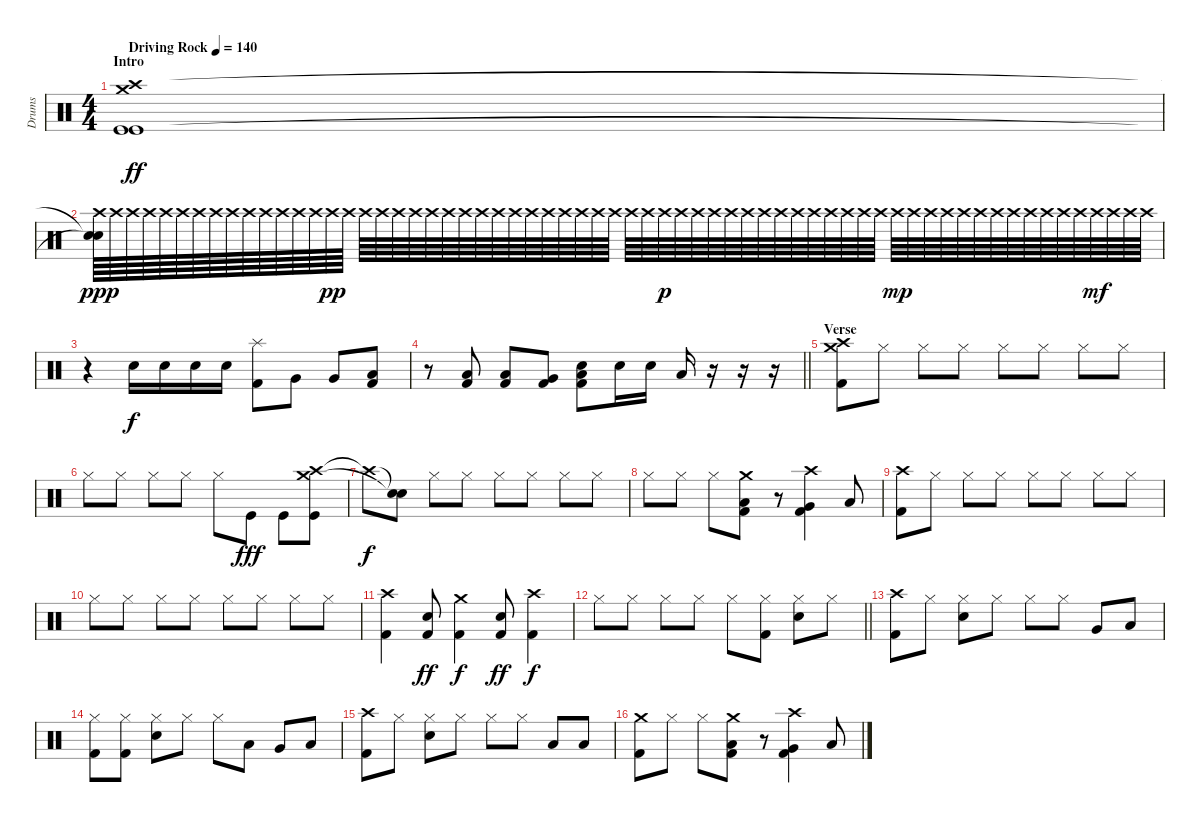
\track ("Drums" "Drums") {instrument percussion}
\staff {score}
\articulation defaults
\ts (4 4)
\section ("" "Intro")
\tempo (140 "Driving Rock")
\clef neutral
\ks c
("Crash medium (hit)" "Crash high (hit)" "Kick (hit)" "Kick (hit)").1{dy ff} |
("Crash high (hit)" "Snare (hit)"{t} "Snare (hit)"{t}).64{dy ppp} "Crash high (hit)".64 "Crash high (hit)".64 "Crash high (hit)".64 "Crash high (hit)".64 "Crash high (hit)".64 "Crash high (hit)".64 "Crash high (hit)".64 "Crash high (hit)".64 "Crash high (hit)".64 "Crash high (hit)".64 "Crash high (hit)".64 "Crash high (hit)".64 "Crash high (hit)".64 "Crash high (hit)".64{dy pp} "Crash high (hit)".64 "Crash high (hit)".64 "Crash high (hit)".64 "Crash high (hit)".64 "Crash high (hit)".64 "Crash high (hit)".64 "Crash high (hit)".64 "Crash high (hit)".64 "Crash high (hit)".64 "Crash high (hit)".64 "Crash high (hit)".64 "Crash high (hit)".64 "Crash high (hit)".64 "Crash high (hit)".64 "Crash high (hit)".64 "Crash high (hit)".64 "Crash high (hit)".64 "Crash high (hit)".64 "Crash high (hit)".64 "Crash high (hit)".64{dy p} "Crash high (hit)".64 "Crash high (hit)".64 "Crash high (hit)".64 "Crash high (hit)".64 "Crash high (hit)".64 "Crash high (hit)".64 "Crash high (hit)".64 "Crash high (hit)".64 "Crash high (hit)".64 "Crash high (hit)".64 "Crash high (hit)".64 "Crash high (hit)".64 "Crash high (hit)".64 "Crash high (hit)".64{dy mp} "Crash high (hit)".64 "Crash high (hit)".64 "Crash high (hit)".64 "Crash high (hit)".64 "Crash high (hit)".64 "Crash high (hit)".64 "Crash high (hit)".64 "Crash high (hit)".64 "Crash high (hit)".64 "Crash high (hit)".64 "Crash high (hit)".64 "Crash high (hit)".64{dy mf} "Crash high (hit)".64 "Crash high (hit)".64 "Crash high (hit)".64 |
r.4 "Snare (hit) 2".16{dy f} "Snare (hit) 2".16 "Snare (hit) 2".16 "Snare (hit) 2".16 ("Splash (hit)" "Kick (hit) 2").8 "Very Low Tom (hit)".8 "Very Low Tom (hit)".8 ("Low Tom (hit)" "Kick (hit) 2").8 |
\barLineRight lightlight
r.8 ("Low Floor Tom (hit)" "Kick (hit) 2").8 ("Low Floor Tom (hit)" "Kick (hit) 2").8 ("Very Low Tom (hit)" "Kick (hit) 2").8 ("Low Floor Tom (hit)" "Snare (hit) 2" "Kick (hit) 2").8 "Snare (hit) 2".16 "Snare (hit) 2".16 "Low Tom (hit)".16 r.16 r.16 r.16 |
\section ("" "Verse")
("Crash medium (hit)" "Crash high (hit)" "Kick (hit) 2").8 "Hi-Hat (closed)".8 "Hi-Hat (closed)".8 "Hi-Hat (closed)".8 "Hi-Hat (closed)".8 "Hi-Hat (closed)".8 "Hi-Hat (closed)".8 "Hi-Hat (closed)".8 |
"Hi-Hat (closed)".8 "Hi-Hat (closed)".8 "Hi-Hat (closed)".8 "Hi-Hat (closed)".8 "Hi-Hat (closed)".8 "Kick (hit)".8{dy fff} "Kick (hit)".8 ("Crash high (hit)" "Crash medium (hit)" "Kick (hit)").8 |
"Crash high (hit)"{t}.8{dy f} ("Snare (hit)"{t} "Snare (hit)"{t}).8 "Hi-Hat (closed)".8 "Hi-Hat (closed)".8 "Hi-Hat (closed)".8 "Hi-Hat (closed)".8 "Hi-Hat (closed)".8 "Hi-Hat (closed)".8 |
"Hi-Hat (closed)".8 "Hi-Hat (closed)".8 "Hi-Hat (closed)".8 ("Crash medium (hit)" "Low Tom (hit)" "Kick (hit) 2").8 r.8 ("Crash high (hit)" "Very Low Tom (hit)" "Kick (hit) 2").4 "Low Floor Tom (hit)".8 |
("Crash high (hit)" "Kick (hit) 2").8 "Hi-Hat (closed)".8 "Hi-Hat (closed)".8 "Hi-Hat (closed)".8 "Hi-Hat (closed)".8 "Hi-Hat (closed)".8 "Hi-Hat (closed)".8 "Hi-Hat (closed)".8 |
"Hi-Hat (closed)".8 "Hi-Hat (closed)".8 "Hi-Hat (closed)".8 "Hi-Hat (closed)".8 "Hi-Hat (closed)".8 "Hi-Hat (closed)".8 "Hi-Hat (closed)".8 "Hi-Hat (closed)".8 |
("Crash high (hit)" "Kick (hit) 2").4 ("Snare (hit) 2" "Kick (hit) 2").8{dy ff} ("Crash medium (hit)" "Kick (hit) 2").4{dy f} ("Snare (hit) 2" "Kick (hit) 2").8{dy ff} ("Crash high (hit)" "Kick (hit) 2").4{dy f} |
\barLineRight lightlight "Hi-Hat (closed)".8 "Hi-Hat (closed)".8 "Hi-Hat (closed)".8 "Hi-Hat (closed)".8 "Hi-Hat (closed)".8
("Hi-Hat (closed)" "Kick (hit) 2").8 ("Hi-Hat (closed)" "Snare (hit) 2").8 "Hi-Hat (closed)".8 |
("Crash high (hit)" "Kick (hit) 2").8 "Hi-Hat (closed)".8 ("Hi-Hat (closed)" "Snare (hit) 2").8 "Hi-Hat (closed)".8 "Hi-Hat (closed)".8 "Hi-Hat (closed)".8 "Very Low Tom (hit)".8 "Low Floor Tom (hit)".8 |
("Hi-Hat (closed)" "Kick (hit) 2").8 ("Hi-Hat (closed)" "Kick (hit) 2").8 ("Hi-Hat (closed)" "Snare (hit) 2").8 "Hi-Hat (closed)".8 "Hi-Hat (closed)".8 "Low Tom (hit)".8 "Very Low Tom (hit)".8 "Low Floor Tom (hit)".8 |
("Crash high (hit)" "Kick (hit) 2").8 "Hi-Hat (closed)".8 ("Hi-Hat (closed)" "Snare (hit) 2").8 "Hi-Hat (closed)".8 "Hi-Hat (closed)".8 "Hi-Hat (closed)".8 "Low Tom (hit)".8 "Low Floor Tom (hit)".8 |
("Crash medium (hit)" "Kick (hit) 2").8 "Hi-Hat (closed)".8 "Hi-Hat (closed)".8 ("Crash medium (hit)" "Low Tom (hit)" "Kick (hit) 2").8 r.8 ("Crash high (hit)" "Very Low Tom (hit)" "Kick (hit) 2").4 "Low Floor Tom (hit)".8
